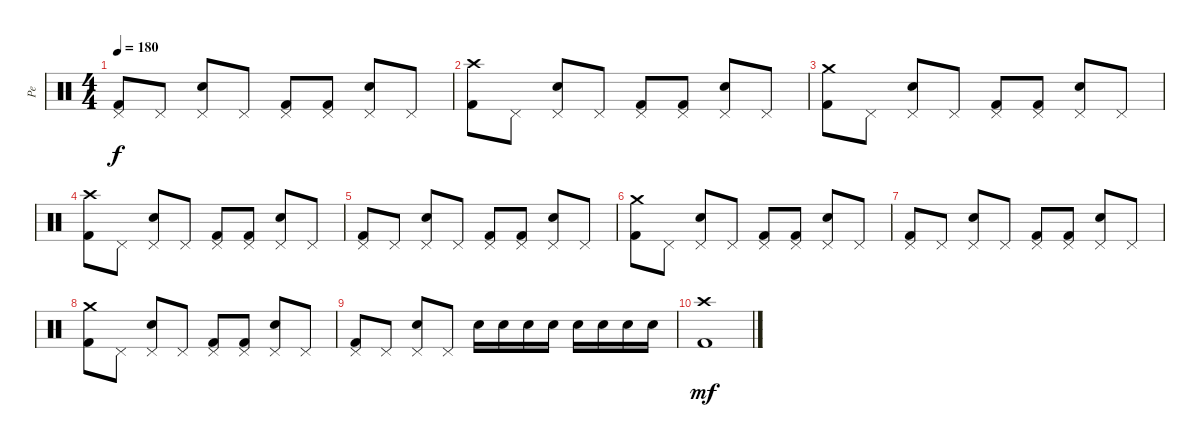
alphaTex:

\track ("Pe" "Pe") {instrument percussion}
\staff {score}
\articulation defaults
\ts (4 4)
\tempo 180
\clef neutral
\ks c
("Pedal Hi-Hat (hit)" "Kick (hit) 2").8{dy f} "Pedal Hi-Hat (hit)".8 ("Pedal Hi-Hat (hit)" "Electric Snare (hit)").8 "Pedal Hi-Hat (hit)".8 ("Pedal Hi-Hat (hit)" "Kick (hit) 2").8 ("Pedal Hi-Hat (hit)" "Kick (hit) 2").8 ("Pedal Hi-Hat (hit)" "Electric Snare (hit)").8 "Pedal Hi-Hat (hit)".8 |
("Crash high (hit)" "Kick (hit) 2").8 "Pedal Hi-Hat (hit)".8 ("Pedal Hi-Hat (hit)" "Electric Snare (hit)").8 "Pedal Hi-Hat (hit)".8 ("Pedal Hi-Hat (hit)" "Kick (hit) 2").8 ("Pedal Hi-Hat (hit)" "Kick (hit) 2").8 ("Pedal Hi-Hat (hit)" "Electric Snare (hit)").8 "Pedal Hi-Hat (hit)".8 |
("Crash medium (hit)" "Kick (hit) 2").8 "Pedal Hi-Hat (hit)".8 ("Pedal Hi-Hat (hit)" "Electric Snare (hit)").8 "Pedal Hi-Hat (hit)".8 ("Pedal Hi-Hat (hit)" "Kick (hit) 2").8 ("Pedal Hi-Hat (hit)" "Kick (hit) 2").8 ("Pedal Hi-Hat (hit)" "Electric Snare (hit)").8 "Pedal Hi-Hat (hit)".8 |
("Crash high (hit)" "Kick (hit) 2").8 "Pedal Hi-Hat (hit)".8 ("Pedal Hi-Hat (hit)" "Electric Snare (hit)").8 "Pedal Hi-Hat (hit)".8 ("Pedal Hi-Hat (hit)" "Kick (hit) 2").8 ("Pedal Hi-Hat (hit)" "Kick (hit) 2").8 ("Pedal Hi-Hat (hit)" "Electric Snare (hit)").8 "Pedal Hi-Hat (hit)".8 |
("Pedal Hi-Hat (hit)" "Kick (hit) 2").8 "Pedal Hi-Hat (hit)".8 ("Pedal Hi-Hat (hit)" "Electric Snare (hit)").8 "Pedal Hi-Hat (hit)".8 ("Pedal Hi-Hat (hit)" "Kick (hit) 2").8 ("Pedal Hi-Hat (hit)" "Kick (hit) 2").8 ("Pedal Hi-Hat (hit)" "Electric Snare (hit)").8 "Pedal Hi-Hat (hit)".8 |
("Crash medium (hit)" "Kick (hit) 2").8 "Pedal Hi-Hat (hit)".8 ("Pedal Hi-Hat (hit)" "Electric Snare (hit)").8 "Pedal Hi-Hat (hit)".8 ("Pedal Hi-Hat (hit)" "Kick (hit) 2").8 ("Pedal Hi-Hat (hit)" "Kick (hit) 2").8 ("Pedal Hi-Hat (hit)" "Electric Snare (hit)").8 "Pedal Hi-Hat (hit)".8 |
("Pedal Hi-Hat (hit)" "Kick (hit) 2").8 "Pedal Hi-Hat (hit)".8 ("Pedal Hi-Hat (hit)" "Electric Snare (hit)").8 "Pedal Hi-Hat (hit)".8 ("Pedal Hi-Hat (hit)" "Kick (hit) 2").8 ("Pedal Hi-Hat (hit)" "Kick (hit) 2").8 ("Pedal Hi-Hat (hit)" "Electric Snare (hit)").8 "Pedal Hi-Hat (hit)".8 |
("Crash medium (hit)" "Kick (hit) 2").8 "Pedal Hi-Hat (hit)".8 ("Pedal Hi-Hat (hit)" "Electric Snare (hit)").8 "Pedal Hi-Hat (hit)".8 ("Pedal Hi-Hat (hit)" "Kick (hit) 2").8 ("Pedal Hi-Hat (hit)" "Kick (hit) 2").8 ("Pedal Hi-Hat (hit)" "Electric Snare (hit)").8 "Pedal Hi-Hat (hit)".8 |
("Pedal Hi-Hat (hit)" "Kick (hit) 2").8 "Pedal Hi-Hat (hit)".8 ("Pedal Hi-Hat (hit)" "Electric Snare (hit)").8 "Pedal Hi-Hat (hit)".8 "Electric Snare (hit)".16 "Electric Snare (hit)".16 "Electric Snare (hit)".16 "Electric Snare (hit)".16 "Electric Snare (hit)".16 "Electric Snare (hit)".16 "Electric Snare (hit)".16 "Electric Snare (hit)".16 |
("Crash high (hit)" "Kick (hit) 2").1{dy mf}
